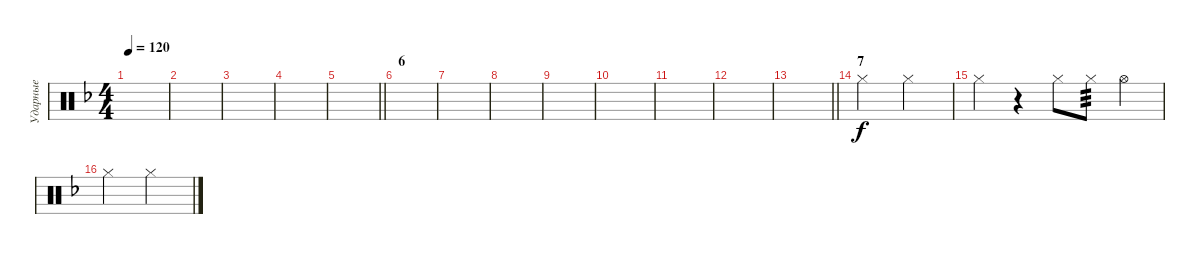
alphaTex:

\track ("Ударные" "Ударные") {instrument percussion}
\staff {score}
\articulation defaults
\ts (4 4)
\tempo 120
\clef neutral
\ks dminor
|
|
|
|
\barLineRight lightlight
|
\section ("" "6")
|
|
|
|
|
|
|
\barLineRight lightlight
|
\section ("" "7")
"Hi-Hat (closed)".2 "Hi-Hat (closed)".2 |
"Hi-Hat (closed)".4 r.4 "Hi-Hat (closed)".8 "Hi-Hat (closed)".8{tp 3} "Hi-Hat (open)".4 |
"Hi-Hat (closed)".2 "Hi-Hat (closed)".2
